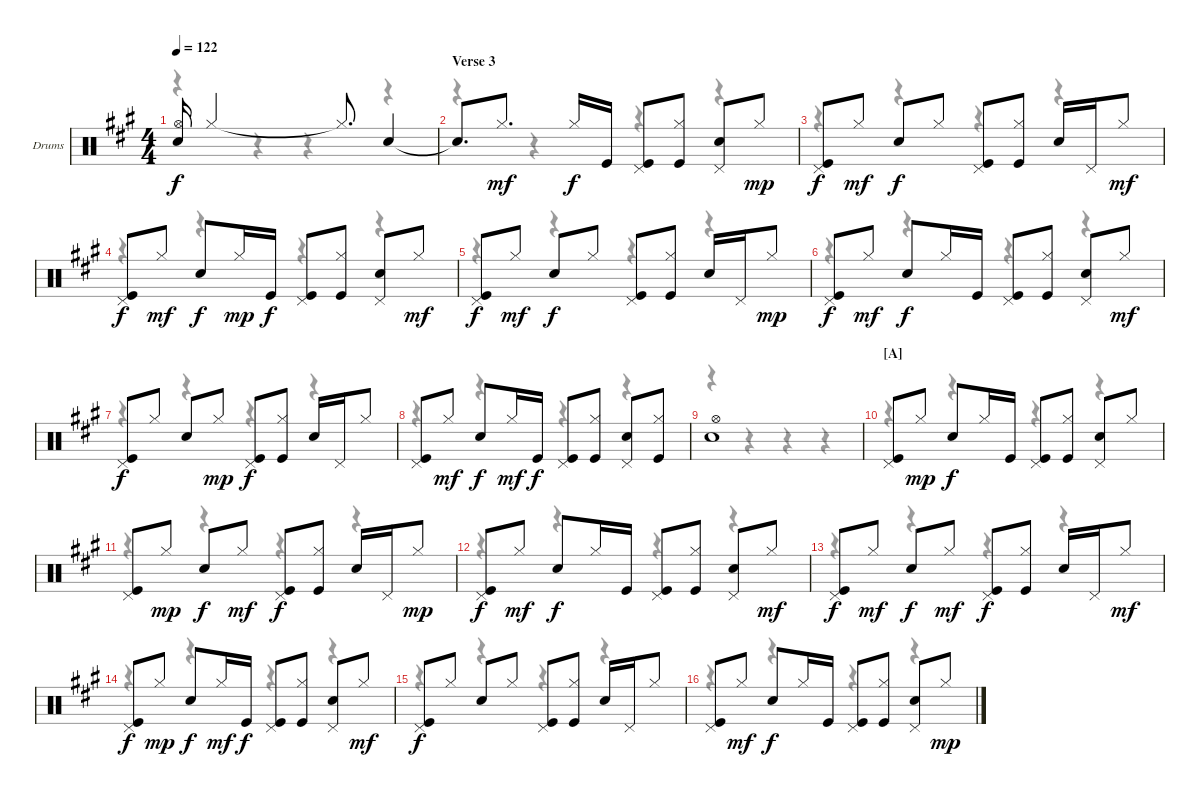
\bracketExtendMode groupsimilarinstruments
\firstSystemTrackNameOrientation horizontal
\otherSystemsTrackNameOrientation horizontal
\track ("Chris Layton - Drums" "Drums") {instrument percussion}
\staff {score}
\articulation defaults
\voice
\ts (4 4)
\tempo 122
\clef neutral
\ks a
("Snare (hit) 2" "Hi-Hat (open)").16{dy f} "Hi-Hat (closed)".2 "Hi-Hat (closed)"{t}.8{d} "Snare (hit) 2".4 |
\section ("" "Verse 3")
"Snare (hit) 2"{t}.8{d} "Hi-Hat (closed)".8{d dy mf} "Hi-Hat (closed)".16{dy f} "Kick (hit)".16 ("Kick (hit)" "Pedal Hi-Hat (hit)").8 ("Kick (hit)" "Hi-Hat (closed)").8 ("Snare (hit) 2" "Pedal Hi-Hat (hit)").8 "Hi-Hat (closed)".8{dy mp} |
("Kick (hit)" "Pedal Hi-Hat (hit)").8{dy f} "Hi-Hat (closed)".8{dy mf} "Snare (hit) 2".8{dy f} "Hi-Hat (closed)".8 ("Kick (hit)" "Pedal Hi-Hat (hit)").8 ("Kick (hit)" "Hi-Hat (closed)").8 "Snare (hit) 2".16 "Pedal Hi-Hat (hit)".16 "Hi-Hat (closed)".8{dy mf} |
("Kick (hit)" "Pedal Hi-Hat (hit)").8{dy f} "Hi-Hat (closed)".8{dy mf} "Snare (hit) 2".8{dy f} "Hi-Hat (closed)".16{dy mp} "Kick (hit)".16{dy f} ("Kick (hit)" "Pedal Hi-Hat (hit)").8 ("Kick (hit)" "Hi-Hat (closed)").8 ("Snare (hit) 2" "Pedal Hi-Hat (hit)").8 "Hi-Hat (closed)".8{dy mf} |
("Kick (hit)" "Pedal Hi-Hat (hit)").8{dy f} "Hi-Hat (closed)".8{dy mf} "Snare (hit) 2".8{dy f} "Hi-Hat (closed)".8 ("Kick (hit)" "Pedal Hi-Hat (hit)").8 ("Kick (hit)" "Hi-Hat (closed)").8 "Snare (hit) 2".16 "Pedal Hi-Hat (hit)".16 "Hi-Hat (closed)".8{dy mp} |
("Kick (hit)" "Pedal Hi-Hat (hit)").8{dy f} "Hi-Hat (closed)".8{dy mf} "Snare (hit) 2".8{dy f} "Hi-Hat (closed)".16 "Kick (hit)".16 ("Kick (hit)" "Pedal Hi-Hat (hit)").8 ("Kick (hit)" "Hi-Hat (closed)").8 ("Snare (hit) 2" "Pedal Hi-Hat (hit)").8 "Hi-Hat (closed)".8{dy mf} |
("Kick (hit)" "Pedal Hi-Hat (hit)").8{dy f} "Hi-Hat (closed)".8 "Snare (hit) 2".8 "Hi-Hat (closed)".8{dy mp} ("Kick (hit)" "Pedal Hi-Hat (hit)").8{dy f} ("Kick (hit)" "Hi-Hat (closed)").8 "Snare (hit) 2".16 "Pedal Hi-Hat (hit)".16 "Hi-Hat (closed)".8 |
("Kick (hit)" "Pedal Hi-Hat (hit)").8 "Hi-Hat (closed)".8{dy mf} "Snare (hit) 2".8{dy f} "Hi-Hat (closed)".16{dy mf} "Kick (hit)".16{dy f} ("Kick (hit)" "Pedal Hi-Hat (hit)").8 ("Kick (hit)" "Hi-Hat (closed)").8 ("Snare (hit) 2" "Pedal Hi-Hat (hit)").8 ("Kick (hit)" "Hi-Hat (closed)").8 |
("Snare (hit) 2" "Hi-Hat (open)").1 |
\section ("A" "")
("Kick (hit)" "Pedal Hi-Hat (hit)").8 "Hi-Hat (closed)".8{dy mp} "Snare (hit) 2".8{dy f} "Hi-Hat (closed)".16 "Kick (hit)".16 ("Kick (hit)" "Pedal Hi-Hat (hit)").8 ("Kick (hit)" "Hi-Hat (closed)").8 ("Snare (hit) 2" "Pedal Hi-Hat (hit)").8 "Hi-Hat (closed)".8 |
("Kick (hit)" "Pedal Hi-Hat (hit)").8 "Hi-Hat (closed)".8{dy mp} "Snare (hit) 2".8{dy f} "Hi-Hat (closed)".8{dy mf} ("Kick (hit)" "Pedal Hi-Hat (hit)").8{dy f} ("Kick (hit)" "Hi-Hat (closed)").8 "Snare (hit) 2".16 "Pedal Hi-Hat (hit)".16 "Hi-Hat (closed)".8{dy mp} |
("Kick (hit)" "Pedal Hi-Hat (hit)").8{dy f} "Hi-Hat (closed)".8{dy mf} "Snare (hit) 2".8{dy f} "Hi-Hat (closed)".16 "Kick (hit)".16 ("Kick (hit)" "Pedal Hi-Hat (hit)").8 ("Kick (hit)" "Hi-Hat (closed)").8 ("Snare (hit) 2" "Pedal Hi-Hat (hit)").8 "Hi-Hat (closed)".8{dy mf} |
("Kick (hit)" "Pedal Hi-Hat (hit)").8{dy f} "Hi-Hat (closed)".8{dy mf} "Snare (hit) 2".8{dy f} "Hi-Hat (closed)".8{dy mf} ("Kick (hit)" "Pedal Hi-Hat (hit)").8{dy f} ("Kick (hit)" "Hi-Hat (closed)").8 "Snare (hit) 2".16 "Pedal Hi-Hat (hit)".16 "Hi-Hat (closed)".8{dy mf} |
("Kick (hit)" "Pedal Hi-Hat (hit)").8{dy f} "Hi-Hat (closed)".8{dy mp} "Snare (hit) 2".8{dy f} "Hi-Hat (closed)".16{dy mf} "Kick (hit)".16{dy f} ("Kick (hit)" "Pedal Hi-Hat (hit)").8 ("Kick (hit)" "Hi-Hat (closed)").8 ("Snare (hit) 2" "Pedal Hi-Hat (hit)").8 "Hi-Hat (closed)".8{dy mf} |
("Kick (hit)" "Pedal Hi-Hat (hit)").8{dy f} "Hi-Hat (closed)".8 "Snare (hit) 2".8 "Hi-Hat (closed)".8 ("Kick (hit)" "Pedal Hi-Hat (hit)").8 ("Kick (hit)" "Hi-Hat (closed)").8 "Snare (hit) 2".16 "Pedal Hi-Hat (hit)".16 "Hi-Hat (closed)".8 |
("Kick (hit)" "Pedal Hi-Hat (hit)").8 "Hi-Hat (closed)".8{dy mf} "Snare (hit) 2".8{dy f} "Hi-Hat (closed)".16 "Kick (hit)".16 ("Kick (hit)" "Pedal Hi-Hat (hit)").8 ("Kick (hit)" "Hi-Hat (closed)").8 ("Snare (hit) 2" "Pedal Hi-Hat (hit)").8 "Hi-Hat (closed)".8{dy mp}
\voice
\clef neutral
\ottava regular
\simile none
\ks a
r.4{dy mf} r.4 r.4 r.4 |
r.4 r.4 r.4 r.4 |
r.4 r.4 r.4 r.4 |
r.4 r.4 r.4 r.4 |
r.4 r.4 r.4 r.4 |
r.4 r.4 r.4 r.4 |
r.4 r.4 r.4 r.4 |
r.4 r.4 r.4 r.4 |
r.4 r.4 r.4 r.4 |
r.4 r.4 r.4 r.4 |
r.4 r.4 r.4 r.4 |
r.4 r.4 r.4 r.4 |
r.4 r.4 r.4 r.4 |
r.4 r.4 r.4 r.4 |
r.4 r.4 r.4 r.4 |
r.4 r.4 r.4 r.4
